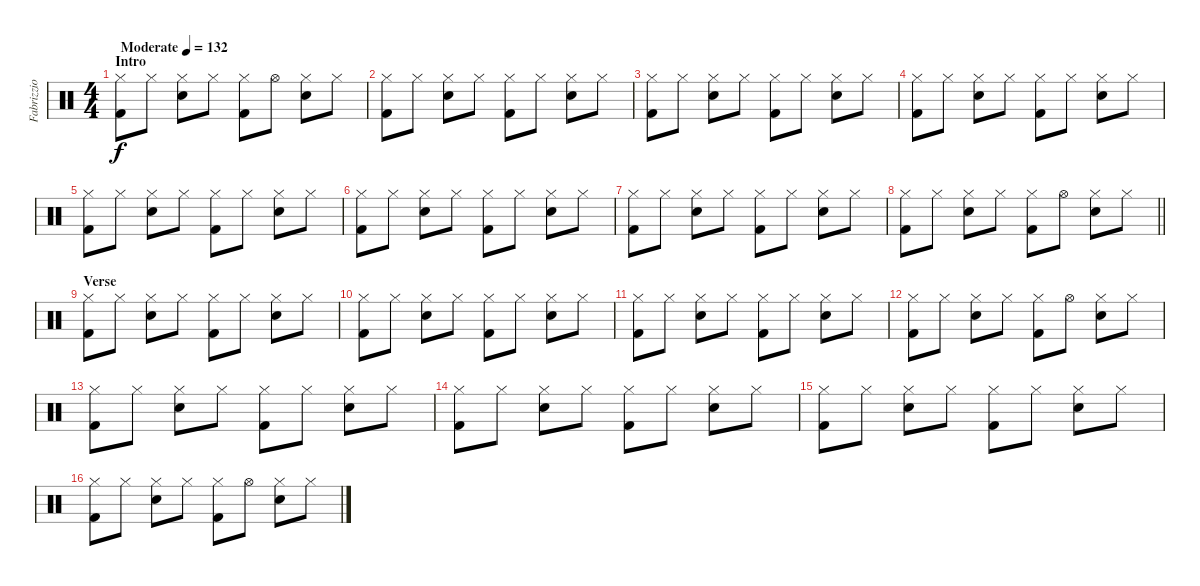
\track ("Fabrizzio" "Fabrizzio") {instrument percussion}
\staff {score}
\articulation defaults
\ts (4 4)
\section ("" "Intro")
\tempo (132 "Moderate")
\clef neutral
\ks c
("Hi-Hat (closed)" "Kick (hit) 2").8{dy f} "Hi-Hat (closed)".8 ("Hi-Hat (closed)" "Snare (hit) 2").8 "Hi-Hat (closed)".8 ("Hi-Hat (closed)" "Kick (hit) 2").8 "Hi-Hat (open)".8 ("Hi-Hat (closed)" "Snare (hit) 2").8 "Hi-Hat (closed)".8 |
("Hi-Hat (closed)" "Kick (hit) 2").8 "Hi-Hat (closed)".8 ("Hi-Hat (closed)" "Snare (hit) 2").8 "Hi-Hat (closed)".8 ("Hi-Hat (closed)" "Kick (hit) 2").8 "Hi-Hat (closed)".8 ("Hi-Hat (closed)" "Snare (hit) 2").8 "Hi-Hat (closed)".8 |
("Hi-Hat (closed)" "Kick (hit) 2").8 "Hi-Hat (closed)".8 ("Hi-Hat (closed)" "Snare (hit) 2").8 "Hi-Hat (closed)".8 ("Hi-Hat (closed)" "Kick (hit) 2").8 "Hi-Hat (closed)".8 ("Hi-Hat (closed)" "Snare (hit) 2").8 "Hi-Hat (closed)".8 |
("Hi-Hat (closed)" "Kick (hit) 2").8 "Hi-Hat (closed)".8 ("Hi-Hat (closed)" "Snare (hit) 2").8 "Hi-Hat (closed)".8 ("Hi-Hat (closed)" "Kick (hit) 2").8 "Hi-Hat (closed)".8 ("Hi-Hat (closed)" "Snare (hit) 2").8 "Hi-Hat (closed)".8 |
("Hi-Hat (closed)" "Kick (hit) 2").8 "Hi-Hat (closed)".8 ("Hi-Hat (closed)" "Snare (hit) 2").8 "Hi-Hat (closed)".8 ("Hi-Hat (closed)" "Kick (hit) 2").8 "Hi-Hat (closed)".8 ("Hi-Hat (closed)" "Snare (hit) 2").8 "Hi-Hat (closed)".8 |
("Hi-Hat (closed)" "Kick (hit) 2").8 "Hi-Hat (closed)".8 ("Hi-Hat (closed)" "Snare (hit) 2").8 "Hi-Hat (closed)".8 ("Hi-Hat (closed)" "Kick (hit) 2").8 "Hi-Hat (closed)".8 ("Hi-Hat (closed)" "Snare (hit) 2").8 "Hi-Hat (closed)".8 |
("Hi-Hat (closed)" "Kick (hit) 2").8 "Hi-Hat (closed)".8 ("Hi-Hat (closed)" "Snare (hit) 2").8 "Hi-Hat (closed)".8 ("Hi-Hat (closed)" "Kick (hit) 2").8 "Hi-Hat (closed)".8 ("Hi-Hat (closed)" "Snare (hit) 2").8 "Hi-Hat (closed)".8 |
\barLineRight lightlight
("Hi-Hat (closed)" "Kick (hit) 2").8 "Hi-Hat (closed)".8 ("Hi-Hat (closed)" "Snare (hit) 2").8 "Hi-Hat (closed)".8 ("Hi-Hat (closed)" "Kick (hit) 2").8 "Hi-Hat (open)".8 ("Hi-Hat (closed)" "Snare (hit) 2").8 "Hi-Hat (closed)".8 |
\section ("" "Verse")
("Hi-Hat (closed)" "Kick (hit) 2").8 "Hi-Hat (closed)".8 ("Hi-Hat (closed)" "Snare (hit) 2").8 "Hi-Hat (closed)".8 ("Hi-Hat (closed)" "Kick (hit) 2").8 "Hi-Hat (closed)".8 ("Hi-Hat (closed)" "Snare (hit) 2").8 "Hi-Hat (closed)".8 |
("Hi-Hat (closed)" "Kick (hit) 2").8 "Hi-Hat (closed)".8 ("Hi-Hat (closed)" "Snare (hit) 2").8 "Hi-Hat (closed)".8 ("Hi-Hat (closed)" "Kick (hit) 2").8 "Hi-Hat (closed)".8 ("Hi-Hat (closed)" "Snare (hit) 2").8 "Hi-Hat (closed)".8 |
("Hi-Hat (closed)" "Kick (hit) 2").8 "Hi-Hat (closed)".8 ("Hi-Hat (closed)" "Snare (hit) 2").8 "Hi-Hat (closed)".8 ("Hi-Hat (closed)" "Kick (hit) 2").8 "Hi-Hat (closed)".8 ("Hi-Hat (closed)" "Snare (hit) 2").8 "Hi-Hat (closed)".8 |
("Hi-Hat (closed)" "Kick (hit) 2").8 "Hi-Hat (closed)".8 ("Hi-Hat (closed)" "Snare (hit) 2").8 "Hi-Hat (closed)".8 ("Hi-Hat (closed)" "Kick (hit) 2").8 "Hi-Hat (open)".8 ("Hi-Hat (closed)" "Snare (hit) 2").8 "Hi-Hat (closed)".8 |
("Hi-Hat (closed)" "Kick (hit) 2").8 "Hi-Hat (closed)".8 ("Hi-Hat (closed)" "Snare (hit) 2").8 "Hi-Hat (closed)".8 ("Hi-Hat (closed)" "Kick (hit) 2").8 "Hi-Hat (closed)".8 ("Hi-Hat (closed)" "Snare (hit) 2").8 "Hi-Hat (closed)".8 |
("Hi-Hat (closed)" "Kick (hit) 2").8 "Hi-Hat (closed)".8 ("Hi-Hat (closed)" "Snare (hit) 2").8 "Hi-Hat (closed)".8 ("Hi-Hat (closed)" "Kick (hit) 2").8 "Hi-Hat (closed)".8 ("Hi-Hat (closed)" "Snare (hit) 2").8 "Hi-Hat (closed)".8 |
("Hi-Hat (closed)" "Kick (hit) 2").8 "Hi-Hat (closed)".8 ("Hi-Hat (closed)" "Snare (hit) 2").8 "Hi-Hat (closed)".8 ("Hi-Hat (closed)" "Kick (hit) 2").8 "Hi-Hat (closed)".8 ("Hi-Hat (closed)" "Snare (hit) 2").8 "Hi-Hat (closed)".8 |
("Hi-Hat (closed)" "Kick (hit) 2").8 "Hi-Hat (closed)".8 ("Hi-Hat (closed)" "Snare (hit) 2").8 "Hi-Hat (closed)".8 ("Hi-Hat (closed)" "Kick (hit) 2").8 "Hi-Hat (open)".8 ("Hi-Hat (closed)" "Snare (hit) 2").8 "Hi-Hat (closed)".8
